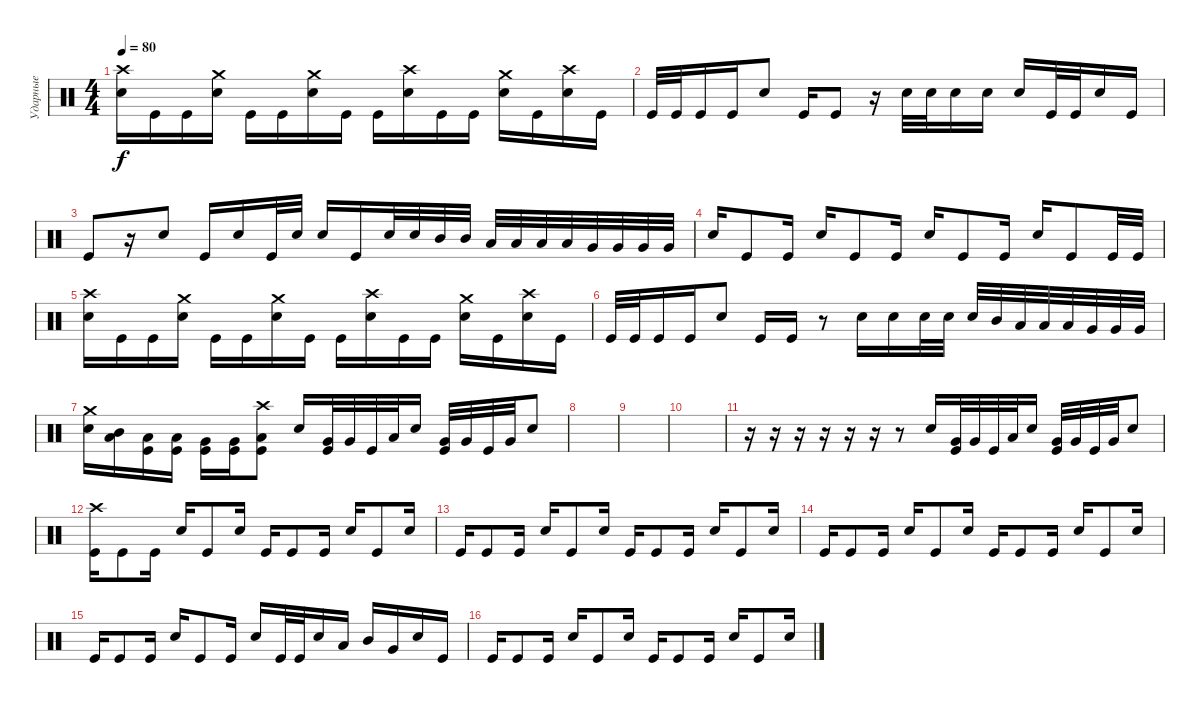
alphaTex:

\track ("Ударные" "Ударные") {instrument percussion}
\staff {score}
\articulation defaults
\ts (4 4)
\tempo 80
\clef neutral
\ks c
("Snare (hit) 2" "Crash high (hit)").16{dy f} "Kick (hit)".16 "Kick (hit)".16 ("Snare (hit) 2" "Crash medium (hit)").16 "Kick (hit)".16 "Kick (hit)".16 ("Snare (hit) 2" "Crash medium (hit)").16 "Kick (hit)".16 "Kick (hit)".16 ("Snare (hit) 2" "Crash high (hit)").16 "Kick (hit)".16 "Kick (hit)".16 ("Snare (hit) 2" "Crash medium (hit)").16 "Kick (hit)".16 ("Snare (hit) 2" "Crash high (hit)").16 "Kick (hit)".16 |
"Kick (hit)".32 "Kick (hit)".32 "Kick (hit)".16 "Kick (hit)".16 "Snare (hit) 2".8 "Kick (hit)".16 "Kick (hit)".8 r.16 "Snare (hit) 2".32 "Snare (hit) 2".32 "Snare (hit) 2".16 "Snare (hit) 2".16 "Snare (hit) 2".16 "Kick (hit)".32 "Kick (hit)".32 "Snare (hit) 2".16 "Kick (hit)".16 |
"Kick (hit)".8 r.16 "Snare (hit) 2".8 "Kick (hit)".16 "Snare (hit) 2".16 "Kick (hit)".32 "Snare (hit) 2".32 "Snare (hit) 2".16 "Kick (hit)".16 "Snare (hit) 2".32 "Snare (hit) 2".32 "Mid Tom (hit)".32 "Mid Tom (hit)".32 "Low Tom (hit)".32 "Low Tom (hit)".32 "Low Tom (hit)".32 "Low Tom (hit)".32 "Very Low Tom (hit)".32 "Very Low Tom (hit)".32 "Very Low Tom (hit)".32 "Very Low Tom (hit)".32 |
"Snare (hit) 2".16 "Kick (hit)".8 "Kick (hit)".16 "Snare (hit) 2".16 "Kick (hit)".8 "Kick (hit)".16 "Snare (hit) 2".16 "Kick (hit)".8 "Kick (hit)".16 "Snare (hit) 2".16 "Kick (hit)".8 "Kick (hit)".32 "Kick (hit)".32 |
("Snare (hit) 2" "Crash high (hit)").16 "Kick (hit)".16 "Kick (hit)".16 ("Snare (hit) 2" "Crash medium (hit)").16 "Kick (hit)".16 "Kick (hit)".16 ("Snare (hit) 2" "Crash medium (hit)").16 "Kick (hit)".16 "Kick (hit)".16 ("Snare (hit) 2" "Crash high (hit)").16 "Kick (hit)".16 "Kick (hit)".16 ("Snare (hit) 2" "Crash medium (hit)").16 "Kick (hit)".16 ("Snare (hit) 2" "Crash high (hit)").16 "Kick (hit)".16 |
"Kick (hit)".32 "Kick (hit)".32 "Kick (hit)".16 "Kick (hit)".16 "Snare (hit) 2".8 "Kick (hit)".16 "Kick (hit)".16 r.8 "Snare (hit) 2".16 "Snare (hit) 2".16 "Snare (hit) 2".32 "Snare (hit) 2".32 "Snare (hit) 2".32 "Mid Tom (hit)".32 "Low Tom (hit)".32 "Low Tom (hit)".32 "Low Tom (hit)".32 "Very Low Tom (hit)".32 "Very Low Tom (hit)".32 "Very Low Tom (hit)".32 |
("Snare (hit) 2" "Crash medium (hit)").16 ("Low Tom (hit)" "Mid Tom (hit)").16 ("Kick (hit)" "Low Tom (hit)").16 ("Kick (hit)" "Low Tom (hit)").16 ("Kick (hit)" "Very Low Tom (hit)").16 ("Kick (hit)" "Very Low Tom (hit)").16 ("Kick (hit)" "Low Floor Tom (hit)" "Crash high (hit)").8 "Snare (hit) 2".16 ("Kick (hit)" "Very Low Tom (hit)").32 "Very Low Tom (hit)".32 "Kick (hit)".32 "Low Tom (hit)".32 "Snare (hit) 2".16 ("Kick (hit)" "Very Low Tom (hit)").32 "Very Low Tom (hit)".32 "Kick (hit)".32 "Very Low Tom (hit)".32 "Snare (hit) 2".8 |
|
|
|
r.16 r.16 r.16 r.16 r.16 r.16 r.8 "Snare (hit) 2".16 ("Kick (hit)" "Very Low Tom (hit)").32 "Very Low Tom (hit)".32 "Kick (hit)".32 "Low Tom (hit)".32 "Snare (hit) 2".16 ("Kick (hit)" "Very Low Tom (hit)").32 "Very Low Tom (hit)".32 "Kick (hit)".32 "Very Low Tom (hit)".32 "Snare (hit) 2".8 |
("Kick (hit)" "Crash high (hit)").16 "Kick (hit)".8 "Kick (hit)".16 "Snare (hit) 2".16 "Kick (hit)".8 "Snare (hit) 2".16 "Kick (hit)".16 "Kick (hit)".8 "Kick (hit)".16 "Snare (hit) 2".16 "Kick (hit)".8 "Snare (hit) 2".16 |
"Kick (hit)".16 "Kick (hit)".8 "Kick (hit)".16 "Snare (hit) 2".16 "Kick (hit)".8 "Snare (hit) 2".16 "Kick (hit)".16 "Kick (hit)".8 "Kick (hit)".16 "Snare (hit) 2".16 "Kick (hit)".8 "Snare (hit) 2".16 |
"Kick (hit)".16 "Kick (hit)".8 "Kick (hit)".16 "Snare (hit) 2".16 "Kick (hit)".8 "Snare (hit) 2".16 "Kick (hit)".16 "Kick (hit)".8 "Kick (hit)".16 "Snare (hit) 2".16 "Kick (hit)".8 "Snare (hit) 2".16 |
"Kick (hit)".16 "Kick (hit)".8 "Kick (hit)".16 "Snare (hit) 2".16 "Kick (hit)".8 "Kick (hit)".16 "Snare (hit) 2".16 "Kick (hit)".32 "Kick (hit)".32 "Snare (hit) 2".16 "Low Tom (hit)".16 "Mid Tom (hit)".16 "Very Low Tom (hit)".16 "Snare (hit) 2".16 "Kick (hit)".16 |
"Kick (hit)".16 "Kick (hit)".8 "Kick (hit)".16 "Snare (hit) 2".16 "Kick (hit)".8 "Snare (hit) 2".16 "Kick (hit)".16 "Kick (hit)".8 "Kick (hit)".16 "Snare (hit) 2".16 "Kick (hit)".8 "Snare (hit) 2".16
